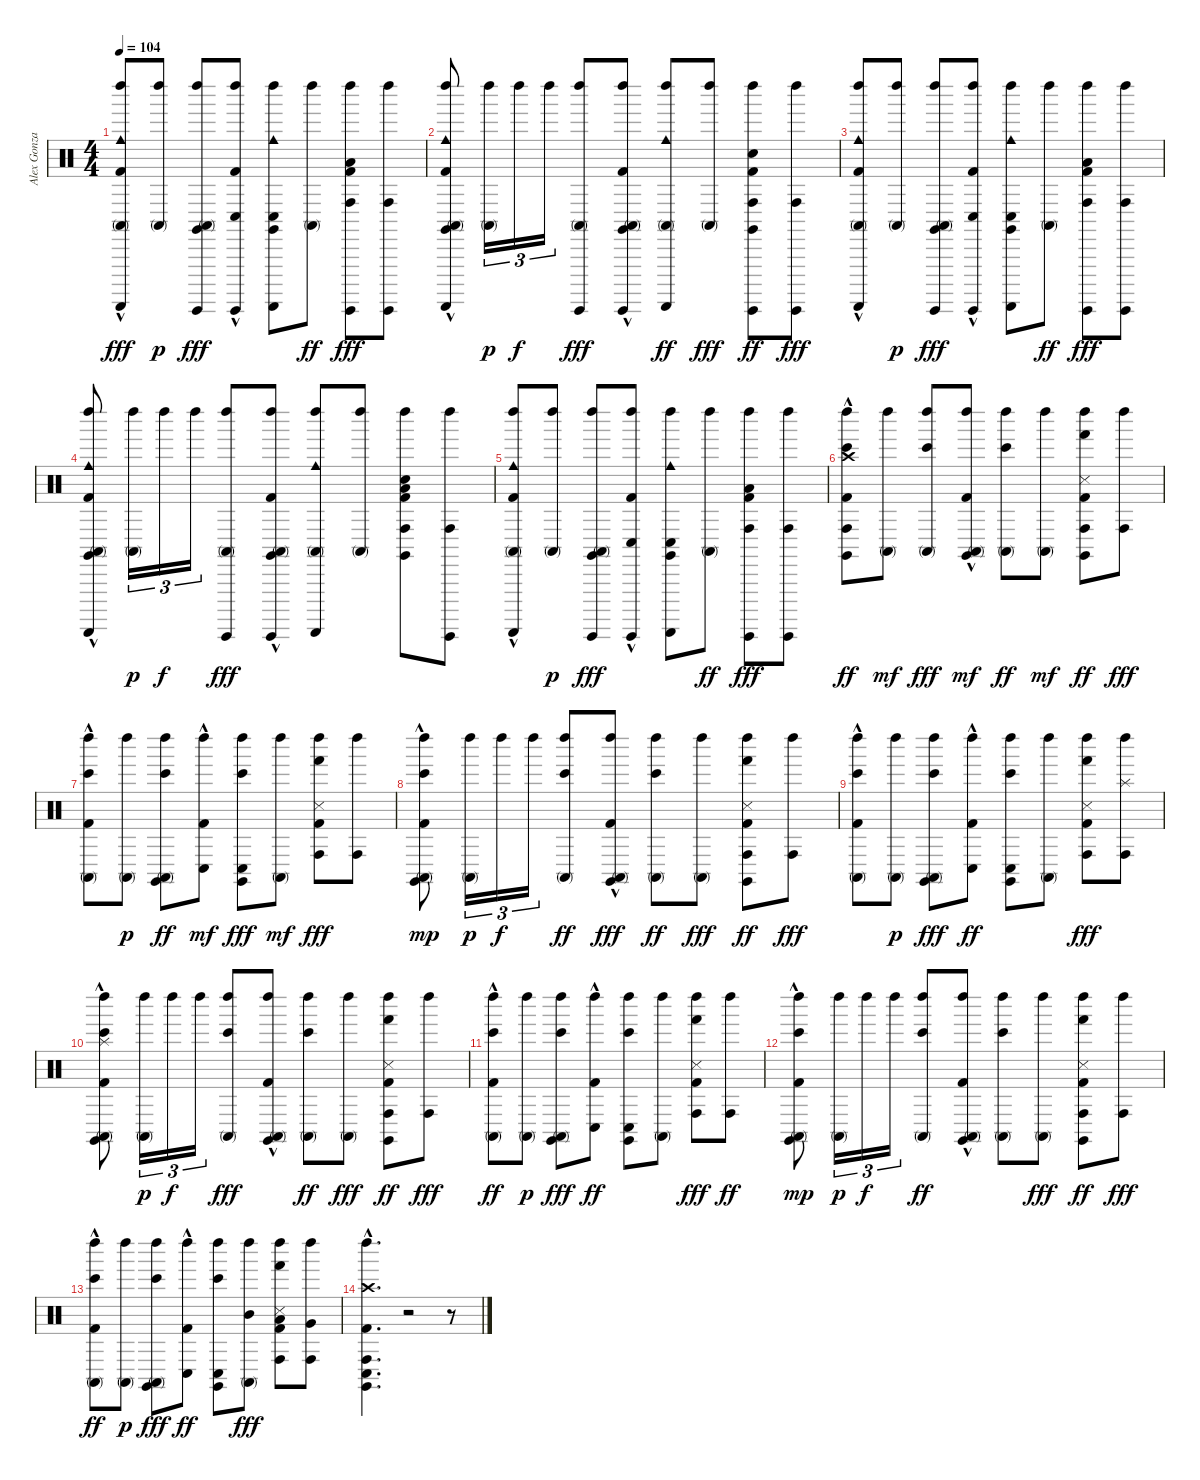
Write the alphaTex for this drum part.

\track ("Alex Gonzalez" "Alex Gonza") {instrument percussion}
\staff {score}
\articulation defaults
\ts (4 4)
\tempo 104
\clef neutral
\ks c
("Left Maraca (hit)" "Cowbell medium (hit)" "Conga high (mute)" "Kick (hit) 2"{hac} "Guiro (scrap-return)").8{dy fff} ("Conga high (mute)" "Left Maraca (hit)").8{dy p} ("Guiro (hit)" "Claves (hit)" "Left Maraca (hit)" "Conga high (mute)").8{dy fff} ("Kick (hit) 2"{hac} "Conga low (hit)" "Guiro (hit)" "Left Maraca (hit)").8 ("Conga low (hit)" "Claves (hit)" "Cowbell medium (hit)" "Left Maraca (hit)" "Guiro (scrap-return)").8 ("Conga high (mute)" "Left Maraca (hit)").8{dy ff} ("Left Maraca (hit)" "Conga high (hit)" "Kick (hit) 2" "Low Tom (hit)" "Guiro (hit)").8{dy fff} ("Left Maraca (hit)" "Guiro (hit)" "Conga high (hit)").8 |
("Conga high (mute)" "Claves (hit)"{hac} "Kick (hit) 2"{hac} "Left Maraca (hit)" "Cowbell medium (hit)" "Guiro (scrap-return)").8 ("Conga high (mute)" "Left Maraca (hit)").16{tu (3 2) dy p} "Left Maraca (hit)".16{tu (3 2) dy f} "Left Maraca (hit)".16{tu (3 2)} ("Conga high (mute)" "Left Maraca (hit)" "Guiro (hit)").8{dy fff} ("Claves (hit)"{hac} "Conga high (mute)" "Kick (hit) 2"{hac} "Left Maraca (hit)" "Guiro (hit)").8 ("Cowbell medium (hit)" "Guiro (scrap-return)" "Conga high (mute)" "Left Maraca (hit)").8{dy ff} ("Conga high (mute)" "Left Maraca (hit)").8{dy fff} ("Claves (hit)" "Electric Snare (hit)" "Guiro (hit)" "Conga high (hit)" "Kick (hit) 2" "Left Maraca (hit)").8{dy ff} ("Guiro (hit)" "Conga high (hit)" "Left Maraca (hit)").8{dy fff} |
("Conga high (mute)" "Kick (hit) 2"{hac} "Left Maraca (hit)" "Cowbell medium (hit)" "Guiro (scrap-return)").8 ("Conga high (mute)" "Left Maraca (hit)").8{dy p} ("Claves (hit)" "Conga high (mute)" "Left Maraca (hit)" "Guiro (hit)").8{dy fff} ("Conga low (hit)" "Kick (hit) 2"{hac} "Left Maraca (hit)" "Guiro (hit)").8 ("Claves (hit)" "Conga low (hit)" "Left Maraca (hit)" "Cowbell medium (hit)" "Guiro (scrap-return)").8 ("Conga high (mute)" "Left Maraca (hit)").8{dy ff} ("Conga high (hit)" "Kick (hit) 2" "Left Maraca (hit)" "Low Tom (hit)" "Guiro (hit)").8{dy fff} ("Left Maraca (hit)" "Guiro (hit)" "Conga high (hit)").8 |
("Conga high (mute)" "Kick (hit) 2"{hac} "Claves (hit)"{hac} "Cowbell medium (hit)" "Left Maraca (hit)" "Guiro (scrap-return)").8 ("Conga high (mute)" "Left Maraca (hit)").16{tu (3 2) dy p} "Left Maraca (hit)".16{tu (3 2) dy f} "Left Maraca (hit)".16{tu (3 2)} ("Left Maraca (hit)" "Guiro (hit)" "Conga high (mute)").8{dy fff} ("Claves (hit)"{hac} "Conga high (mute)" "Kick (hit) 2"{hac} "Left Maraca (hit)" "Guiro (hit)").8 ("Conga high (mute)" "Left Maraca (hit)" "Cowbell medium (hit)" "Guiro (scrap-return)").8 ("Conga high (mute)" "Left Maraca (hit)").8 ("Claves (hit)" "Kick (hit) 2" "Conga high (hit)" "Low Tom (hit)" "Left Maraca (hit)" "Electric Snare (hit)").8 ("Guiro (hit)" "Conga high (hit)" "Left Maraca (hit)").8 |
("Conga high (mute)" "Cowbell medium (hit)" "Kick (hit) 2"{hac} "Left Maraca (hit)" "Guiro (scrap-return)").8 ("Conga high (mute)" "Left Maraca (hit)").8{dy p} ("Guiro (hit)" "Left Maraca (hit)" "Conga high (mute)" "Claves (hit)").8{dy fff} ("Conga low (hit)" "Kick (hit) 2"{hac} "Left Maraca (hit)" "Guiro (hit)").8 ("Conga low (hit)" "Claves (hit)" "Left Maraca (hit)" "Guiro (scrap-return)" "Cowbell medium (hit)").8 ("Conga high (mute)" "Left Maraca (hit)").8{dy ff} ("Conga high (hit)" "Kick (hit) 2" "Left Maraca (hit)" "Low Tom (hit)" "Guiro (hit)").8{dy fff} ("Left Maraca (hit)" "Guiro (hit)" "Conga high (hit)").8 |
("Claves (hit)"{hac} "Conga high (hit)" "Left Maraca (hit)" "Kick (hit) 2"{hac} "Bongo High (hit)" "Crash high (hit)").8{dy ff} ("Conga high (mute)" "Left Maraca (hit)").8{dy mf} ("Left Maraca (hit)" "Bongo High (hit)" "Conga high (mute)").8{dy fff} ("Conga high (mute)" "Kick (hit) 2"{hac} "Left Maraca (hit)" "Claves (hit)"{hac}).8{dy mf} ("Bongo High (hit)" "Conga high (mute)" "Left Maraca (hit)").8{dy ff} ("Conga high (mute)" "Left Maraca (hit)").8{dy mf} ("Hand (hit)" "Conga high (hit)" "Claves (hit)" "Kick (hit) 2" "Snare (side stick) 3" "Left Maraca (hit)").8{dy ff} ("Conga high (hit)" "Left Maraca (hit)").8{dy fff} |
("Conga high (mute)" "Left Maraca (hit)" "Kick (hit) 2"{hac} "Bongo High (hit)").8 ("Conga high (mute)" "Left Maraca (hit)").8{dy p} ("Claves (hit)" "Conga high (mute)" "Left Maraca (hit)" "Bongo High (hit)").8{dy ff} ("Kick (hit) 2"{hac} "Conga low (hit)" "Left Maraca (hit)").8{dy mf} ("Claves (hit)" "Conga low (hit)" "Left Maraca (hit)" "Bongo High (hit)").8{dy fff} ("Conga high (mute)" "Left Maraca (hit)").8{dy mf} ("Snare (side stick) 3" "Left Maraca (hit)" "Hand (hit)" "Conga high (hit)" "Kick (hit) 2").8{dy fff} ("Conga high (hit)" "Left Maraca (hit)").8 |
("Claves (hit)"{hac} "Kick (hit) 2"{hac} "Bongo High (hit)" "Left Maraca (hit)" "Conga high (mute)").8{dy mp} ("Conga high (mute)" "Left Maraca (hit)").16{tu (3 2) dy p} "Left Maraca (hit)".16{tu (3 2) dy f} "Left Maraca (hit)".16{tu (3 2)} ("Conga high (mute)" "Bongo High (hit)" "Left Maraca (hit)").8{dy ff} ("Conga high (mute)" "Left Maraca (hit)" "Kick (hit) 2"{hac} "Claves (hit)"{hac}).8{dy fff} ("Left Maraca (hit)" "Conga high (mute)" "Bongo High (hit)").8{dy ff} ("Conga high (mute)" "Left Maraca (hit)").8{dy fff} ("Claves (hit)" "Conga high (hit)" "Kick (hit) 2" "Snare (side stick) 3" "Hand (hit)" "Left Maraca (hit)").8{dy ff} ("Conga high (hit)" "Left Maraca (hit)").8{dy fff} |
("Kick (hit) 2"{hac} "Conga high (mute)" "Left Maraca (hit)" "Bongo High (hit)").8 ("Conga high (mute)" "Left Maraca (hit)").8{dy p} ("Claves (hit)" "Conga high (mute)" "Bongo High (hit)" "Left Maraca (hit)").8{dy fff} ("Left Maraca (hit)" "Conga low (hit)" "Kick (hit) 2"{hac}).8{dy ff} ("Bongo High (hit)" "Left Maraca (hit)" "Claves (hit)" "Conga low (hit)").8 ("Conga high (mute)" "Left Maraca (hit)").8 ("Conga high (hit)" "Kick (hit) 2" "Snare (side stick) 3" "Hand (hit)" "Left Maraca (hit)").8{dy fff} ("Left Maraca (hit)" "Splash (hit)" "Conga high (hit)").8 |
("Kick (hit) 2"{hac} "Splash (hit)" "Conga high (mute)" "Bongo High (hit)" "Left Maraca (hit)" "Claves (hit)"{hac}).8 ("Conga high (mute)" "Left Maraca (hit)").16{tu (3 2) dy p} "Left Maraca (hit)".16{tu (3 2) dy f} "Left Maraca (hit)".16{tu (3 2)} ("Bongo High (hit)" "Left Maraca (hit)" "Conga high (mute)").8{dy fff} ("Conga high (mute)" "Claves (hit)"{hac} "Left Maraca (hit)" "Kick (hit) 2"{hac}).8 ("Conga high (mute)" "Bongo High (hit)" "Left Maraca (hit)").8{dy ff} ("Conga high (mute)" "Left Maraca (hit)").8{dy fff} ("Claves (hit)" "Kick (hit) 2" "Conga high (hit)" "Hand (hit)" "Snare (side stick) 3" "Left Maraca (hit)").8{dy ff} ("Conga high (hit)" "Left Maraca (hit)").8{dy fff} |
("Conga high (mute)" "Kick (hit) 2"{hac} "Bongo High (hit)" "Left Maraca (hit)").8{dy ff} ("Conga high (mute)" "Left Maraca (hit)").8{dy p} ("Left Maraca (hit)" "Bongo High (hit)" "Conga high (mute)" "Claves (hit)").8{dy fff} ("Conga low (hit)" "Kick (hit) 2"{hac} "Left Maraca (hit)").8{dy ff} ("Claves (hit)" "Conga low (hit)" "Bongo High (hit)" "Left Maraca (hit)").8 ("Conga high (mute)" "Left Maraca (hit)").8 ("Left Maraca (hit)" "Conga high (hit)" "Snare (side stick) 3" "Hand (hit)" "Kick (hit) 2").8{dy fff} ("Conga high (hit)" "Left Maraca (hit)").8{dy ff} |
("Bongo High (hit)" "Kick (hit) 2"{hac} "Left Maraca (hit)" "Claves (hit)"{hac} "Conga high (mute)").8{dy mp} ("Conga high (mute)" "Left Maraca (hit)").16{tu (3 2) dy p} "Left Maraca (hit)".16{tu (3 2) dy f} "Left Maraca (hit)".16{tu (3 2)} ("Conga high (mute)" "Bongo High (hit)" "Left Maraca (hit)").8{dy ff} ("Claves (hit)"{hac} "Conga high (mute)" "Kick (hit) 2"{hac} "Left Maraca (hit)").8 ("Conga high (mute)" "Bongo High (hit)" "Left Maraca (hit)").8 ("Conga high (mute)" "Left Maraca (hit)").8{dy fff} ("Snare (side stick) 3" "Kick (hit) 2" "Conga high (hit)" "Claves (hit)" "Hand (hit)" "Left Maraca (hit)").8{dy ff} ("Conga high (hit)" "Left Maraca (hit)").8{dy fff} |
("Conga high (mute)" "Kick (hit) 2"{hac} "Bongo High (hit)" "Left Maraca (hit)").8{dy ff} ("Conga high (mute)" "Left Maraca (hit)").8{dy p} ("Claves (hit)" "Conga high (mute)" "Bongo High (hit)" "Left Maraca (hit)").8{dy fff} ("Left Maraca (hit)" "Conga low (hit)" "Kick (hit) 2"{hac}).8{dy ff} ("Bongo High (hit)" "Claves (hit)" "Conga low (hit)" "Left Maraca (hit)").8 ("Conga high (mute)" "Left Maraca (hit)" "Mid Tom (hit)").8{dy fff} ("Snare (side stick) 3" "Conga high (hit)" "Kick (hit) 2" "Hand (hit)" "Left Maraca (hit)" "Low Tom (hit)").8 ("Left Maraca (hit)" "Very Low Tom (hit)" "Conga high (hit)").8 |
("Conga low (hit)" "Conga high (hit)" "Claves (hit)"{hac} "Kick (hit) 2"{hac} "Left Maraca (hit)" "Crash high (hit)").4{d} r.2 r.8
